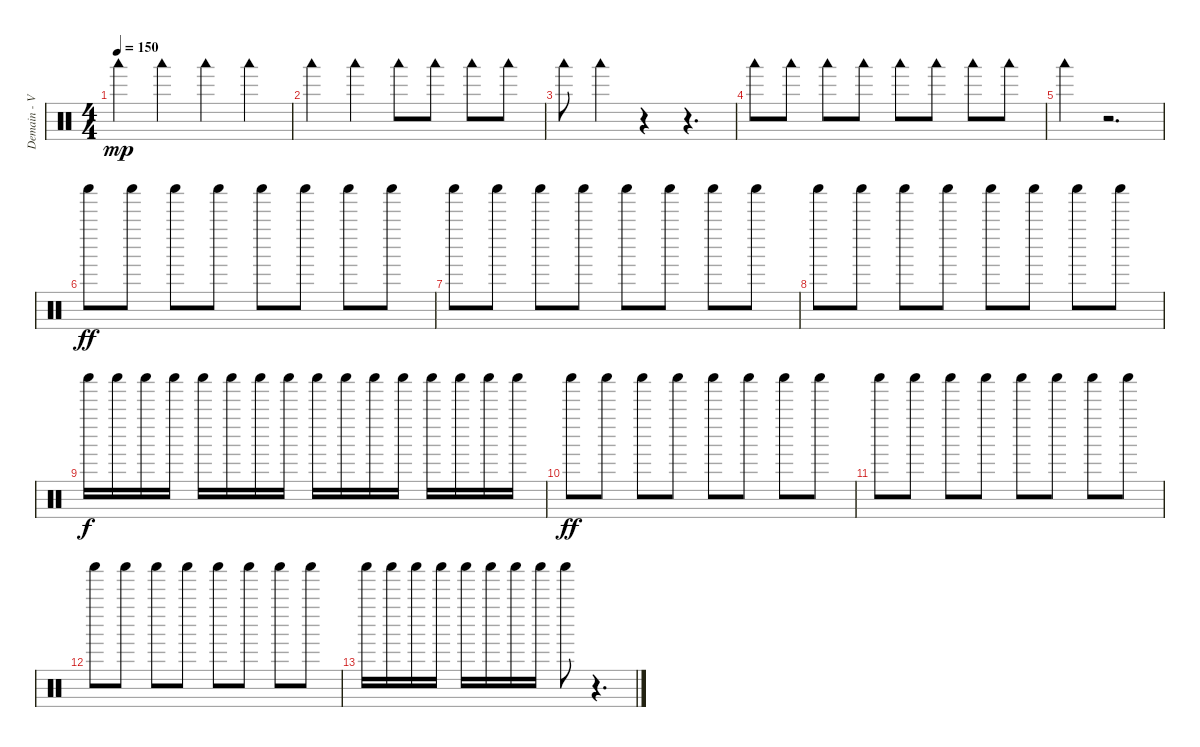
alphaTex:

\track ("Demain - Various Perc." "Demain - V") {instrument percussion}
\staff {score}
\articulation defaults
\ts (4 4)
\tempo 150
\clef neutral
\ks c "Woodblock low (hit)".4{dy mp} "Woodblock low (hit)".4 "Woodblock low (hit)".4 "Woodblock low (hit)".4
|
"Woodblock low (hit)".4 "Woodblock low (hit)".4 "Woodblock low (hit)".8 "Woodblock low (hit)".8 "Woodblock low (hit)".8 "Woodblock low (hit)".8 |
"Woodblock low (hit)".8 "Woodblock low (hit)".4 r.4 r.4{d} |
"Woodblock low (hit)".8 "Woodblock low (hit)".8 "Woodblock low (hit)".8 "Woodblock low (hit)".8 "Woodblock low (hit)".8 "Woodblock low (hit)".8 "Woodblock low (hit)".8 "Woodblock low (hit)".8 |
"Woodblock low (hit)".4 r.2{d} |
"Shaker (hit)".8{dy ff} "Shaker (hit)".8 "Shaker (hit)".8 "Shaker (hit)".8 "Shaker (hit)".8 "Shaker (hit)".8 "Shaker (hit)".8 "Shaker (hit)".8 |
"Shaker (hit)".8 "Shaker (hit)".8 "Shaker (hit)".8 "Shaker (hit)".8 "Shaker (hit)".8 "Shaker (hit)".8 "Shaker (hit)".8 "Shaker (hit)".8 |
"Shaker (hit)".8 "Shaker (hit)".8 "Shaker (hit)".8 "Shaker (hit)".8 "Shaker (hit)".8 "Shaker (hit)".8 "Shaker (hit)".8 "Shaker (hit)".8 |
"Shaker (hit)".16{dy f} "Shaker (hit)".16 "Shaker (hit)".16 "Shaker (hit)".16 "Shaker (hit)".16 "Shaker (hit)".16 "Shaker (hit)".16 "Shaker (hit)".16 "Shaker (hit)".16 "Shaker (hit)".16 "Shaker (hit)".16 "Shaker (hit)".16 "Shaker (hit)".16 "Shaker (hit)".16 "Shaker (hit)".16 "Shaker (hit)".16 |
"Shaker (hit)".8{dy ff} "Shaker (hit)".8 "Shaker (hit)".8 "Shaker (hit)".8 "Shaker (hit)".8 "Shaker (hit)".8 "Shaker (hit)".8 "Shaker (hit)".8 |
"Shaker (hit)".8 "Shaker (hit)".8 "Shaker (hit)".8 "Shaker (hit)".8 "Shaker (hit)".8 "Shaker (hit)".8 "Shaker (hit)".8 "Shaker (hit)".8 |
"Shaker (hit)".8 "Shaker (hit)".8 "Shaker (hit)".8 "Shaker (hit)".8 "Shaker (hit)".8 "Shaker (hit)".8 "Shaker (hit)".8 "Shaker (hit)".8 |
"Shaker (hit)".16 "Shaker (hit)".16 "Shaker (hit)".16 "Shaker (hit)".16 "Shaker (hit)".16 "Shaker (hit)".16 "Shaker (hit)".16 "Shaker (hit)".16 "Shaker (hit)".8 r.4{d}
